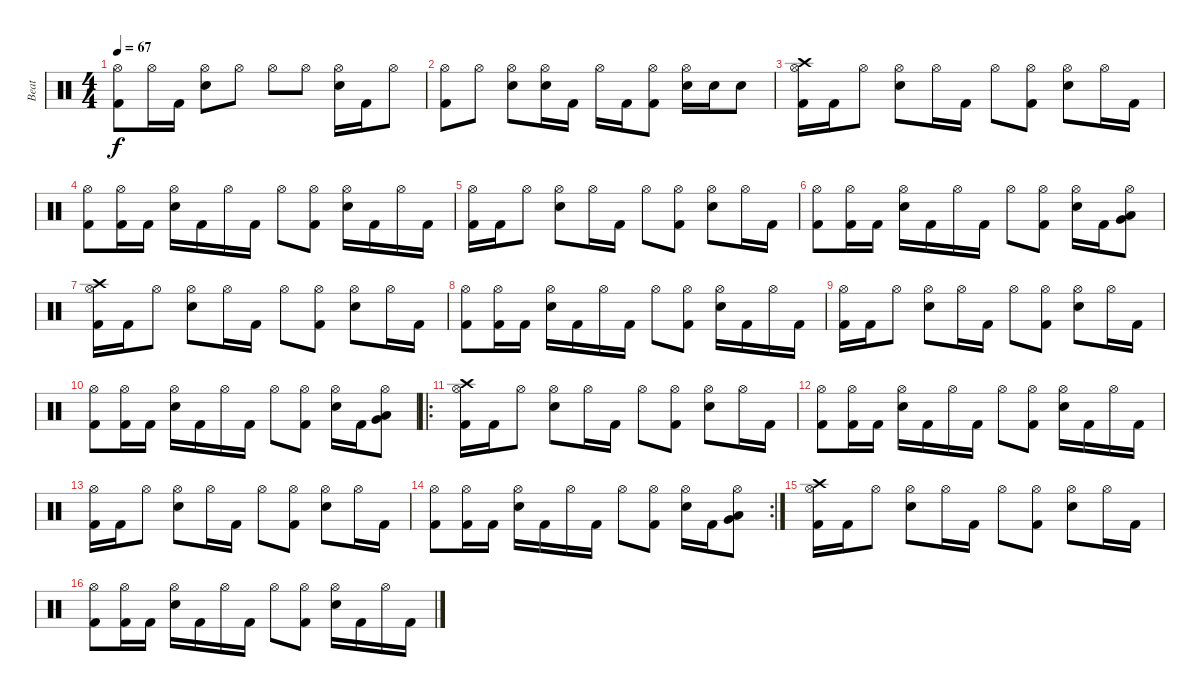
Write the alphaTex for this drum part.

\track ("Beat" "Beat") {instrument percussion}
\staff {score}
\articulation defaults
\ts (4 4)
\tempo 67
\clef neutral
\ks c
("Hi-Hat (open)" "Kick (hit) 2").8{dy f} "Hi-Hat (open)".16 "Kick (hit) 2".16 ("Hi-Hat (open)" "Electric Snare (hit)").8 "Hi-Hat (open)".8 "Hi-Hat (open)".8 "Hi-Hat (open)".8 ("Hi-Hat (open)" "Electric Snare (hit)").16 "Kick (hit) 2".16 "Hi-Hat (open)".8 |
("Hi-Hat (open)" "Kick (hit) 2").8 "Hi-Hat (open)".8 ("Hi-Hat (open)" "Electric Snare (hit)").8 ("Hi-Hat (open)" "Electric Snare (hit)").16 "Kick (hit) 2".16 "Hi-Hat (open)".16 "Kick (hit) 2".16 ("Hi-Hat (open)" "Kick (hit) 2").8 ("Hi-Hat (open)" "Electric Snare (hit)").16 "Electric Snare (hit)".16 "Electric Snare (hit)".8 |
("Crash high (hit)" "Hi-Hat (open)" "Kick (hit) 2").16 "Kick (hit) 2".16 "Hi-Hat (open)".8 ("Hi-Hat (open)" "Electric Snare (hit)").8 "Hi-Hat (open)".16 "Kick (hit) 2".16 "Hi-Hat (open)".8 ("Hi-Hat (open)" "Kick (hit) 2").8 ("Hi-Hat (open)" "Electric Snare (hit)").8 "Hi-Hat (open)".16 "Kick (hit) 2".16 |
("Hi-Hat (open)" "Kick (hit) 2").8 ("Hi-Hat (open)" "Kick (hit) 2").16 "Kick (hit) 2".16 ("Hi-Hat (open)" "Electric Snare (hit)").16 "Kick (hit) 2".16 "Hi-Hat (open)".16 "Kick (hit) 2".16 "Hi-Hat (open)".8 ("Hi-Hat (open)" "Kick (hit) 2").8 ("Hi-Hat (open)" "Electric Snare (hit)").16 "Kick (hit) 2".16 "Hi-Hat (open)".16 "Kick (hit) 2".16 |
("Hi-Hat (open)" "Kick (hit) 2").16 "Kick (hit) 2".16 "Hi-Hat (open)".8 ("Hi-Hat (open)" "Electric Snare (hit)").8 "Hi-Hat (open)".16 "Kick (hit) 2".16 "Hi-Hat (open)".8 ("Hi-Hat (open)" "Kick (hit) 2").8 ("Hi-Hat (open)" "Electric Snare (hit)").8 "Hi-Hat (open)".16 "Kick (hit) 2".16 |
("Hi-Hat (open)" "Kick (hit) 2").8 ("Hi-Hat (open)" "Kick (hit) 2").16 "Kick (hit) 2".16 ("Hi-Hat (open)" "Electric Snare (hit)").16 "Kick (hit) 2".16 "Hi-Hat (open)".16 "Kick (hit) 2".16 "Hi-Hat (open)".8 ("Hi-Hat (open)" "Kick (hit) 2").8 ("Hi-Hat (open)" "Electric Snare (hit)").16 "Kick (hit) 2".16 ("Hi-Hat (open)" "Very Low Tom (hit)" "Low Tom (hit)").8 |
("Crash high (hit)" "Hi-Hat (open)" "Kick (hit) 2").16 "Kick (hit) 2".16 "Hi-Hat (open)".8 ("Hi-Hat (open)" "Electric Snare (hit)").8 "Hi-Hat (open)".16 "Kick (hit) 2".16 "Hi-Hat (open)".8 ("Hi-Hat (open)" "Kick (hit) 2").8 ("Hi-Hat (open)" "Electric Snare (hit)").8 "Hi-Hat (open)".16 "Kick (hit) 2".16 |
("Hi-Hat (open)" "Kick (hit) 2").8 ("Hi-Hat (open)" "Kick (hit) 2").16 "Kick (hit) 2".16 ("Hi-Hat (open)" "Electric Snare (hit)").16 "Kick (hit) 2".16 "Hi-Hat (open)".16 "Kick (hit) 2".16 "Hi-Hat (open)".8 ("Hi-Hat (open)" "Kick (hit) 2").8 ("Hi-Hat (open)" "Electric Snare (hit)").16 "Kick (hit) 2".16 "Hi-Hat (open)".16 "Kick (hit) 2".16 |
("Hi-Hat (open)" "Kick (hit) 2").16 "Kick (hit) 2".16 "Hi-Hat (open)".8 ("Hi-Hat (open)" "Electric Snare (hit)").8 "Hi-Hat (open)".16 "Kick (hit) 2".16 "Hi-Hat (open)".8 ("Hi-Hat (open)" "Kick (hit) 2").8 ("Hi-Hat (open)" "Electric Snare (hit)").8 "Hi-Hat (open)".16 "Kick (hit) 2".16 |
("Hi-Hat (open)" "Kick (hit) 2").8 ("Hi-Hat (open)" "Kick (hit) 2").16 "Kick (hit) 2".16 ("Hi-Hat (open)" "Electric Snare (hit)").16 "Kick (hit) 2".16 "Hi-Hat (open)".16 "Kick (hit) 2".16 "Hi-Hat (open)".8 ("Hi-Hat (open)" "Kick (hit) 2").8 ("Hi-Hat (open)" "Electric Snare (hit)").16 "Kick (hit) 2".16 ("Hi-Hat (open)" "Very Low Tom (hit)" "Low Tom (hit)").8 |
\ro
("Crash high (hit)" "Hi-Hat (open)" "Kick (hit) 2").16 "Kick (hit) 2".16 "Hi-Hat (open)".8 ("Hi-Hat (open)" "Electric Snare (hit)").8 "Hi-Hat (open)".16 "Kick (hit) 2".16 "Hi-Hat (open)".8 ("Hi-Hat (open)" "Kick (hit) 2").8 ("Hi-Hat (open)" "Electric Snare (hit)").8 "Hi-Hat (open)".16 "Kick (hit) 2".16 |
("Hi-Hat (open)" "Kick (hit) 2").8 ("Hi-Hat (open)" "Kick (hit) 2").16 "Kick (hit) 2".16 ("Hi-Hat (open)" "Electric Snare (hit)").16 "Kick (hit) 2".16 "Hi-Hat (open)".16 "Kick (hit) 2".16 "Hi-Hat (open)".8 ("Hi-Hat (open)" "Kick (hit) 2").8 ("Hi-Hat (open)" "Electric Snare (hit)").16 "Kick (hit) 2".16 "Hi-Hat (open)".16 "Kick (hit) 2".16 |
("Hi-Hat (open)" "Kick (hit) 2").16 "Kick (hit) 2".16 "Hi-Hat (open)".8 ("Hi-Hat (open)" "Electric Snare (hit)").8 "Hi-Hat (open)".16 "Kick (hit) 2".16 "Hi-Hat (open)".8 ("Hi-Hat (open)" "Kick (hit) 2").8 ("Hi-Hat (open)" "Electric Snare (hit)").8 "Hi-Hat (open)".16 "Kick (hit) 2".16 |
\rc 2
("Hi-Hat (open)" "Kick (hit) 2").8 ("Hi-Hat (open)" "Kick (hit) 2").16 "Kick (hit) 2".16 ("Hi-Hat (open)" "Electric Snare (hit)").16 "Kick (hit) 2".16 "Hi-Hat (open)".16 "Kick (hit) 2".16 "Hi-Hat (open)".8 ("Hi-Hat (open)" "Kick (hit) 2").8 ("Hi-Hat (open)" "Electric Snare (hit)").16 "Kick (hit) 2".16 ("Hi-Hat (open)" "Very Low Tom (hit)" "Low Tom (hit)").8 |
("Crash high (hit)" "Hi-Hat (open)" "Kick (hit) 2").16 "Kick (hit) 2".16 "Hi-Hat (open)".8 ("Hi-Hat (open)" "Electric Snare (hit)").8 "Hi-Hat (open)".16 "Kick (hit) 2".16 "Hi-Hat (open)".8 ("Hi-Hat (open)" "Kick (hit) 2").8 ("Hi-Hat (open)" "Electric Snare (hit)").8 "Hi-Hat (open)".16 "Kick (hit) 2".16 |
("Hi-Hat (open)" "Kick (hit) 2").8 ("Hi-Hat (open)" "Kick (hit) 2").16 "Kick (hit) 2".16 ("Hi-Hat (open)" "Electric Snare (hit)").16 "Kick (hit) 2".16 "Hi-Hat (open)".16 "Kick (hit) 2".16 "Hi-Hat (open)".8 ("Hi-Hat (open)" "Kick (hit) 2").8 ("Hi-Hat (open)" "Electric Snare (hit)").16 "Kick (hit) 2".16 "Hi-Hat (open)".16 "Kick (hit) 2".16
